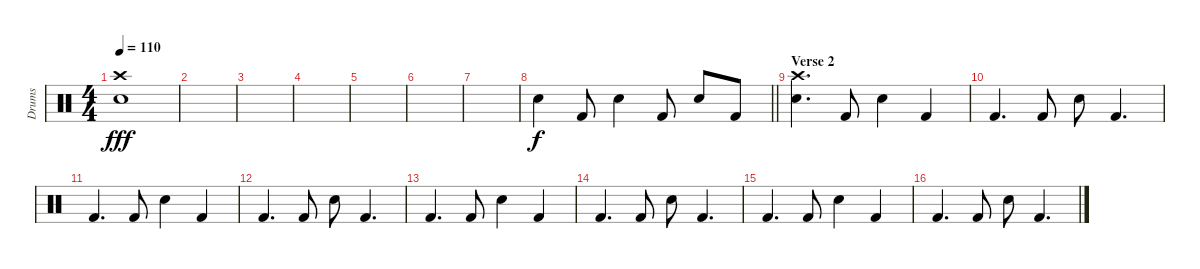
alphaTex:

\track ("Drums" "Drums") {instrument percussion}
\staff {score}
\articulation defaults
\ts (4 4)
\tempo 110
\clef neutral
\ks c
("Crash high (hit)" "Electric Snare (hit)").1{dy fff} |
|
|
|
|
|
|
\barLineRight lightlight "Electric Snare (hit)".4{dy f} "Kick (hit) 2".8 "Electric Snare (hit)".4 "Kick (hit) 2".8 "Electric Snare (hit)".8 "Kick (hit) 2".8
|
\section ("" "Verse 2")
("Crash high (hit)" "Electric Snare (hit)").4{d} "Kick (hit) 2".8 "Electric Snare (hit)".4 "Kick (hit) 2".4 |
"Kick (hit) 2".4{d} "Kick (hit) 2".8 "Electric Snare (hit)".8 "Kick (hit) 2".4{d} |
"Kick (hit) 2".4{d} "Kick (hit) 2".8 "Electric Snare (hit)".4 "Kick (hit) 2".4 |
"Kick (hit) 2".4{d} "Kick (hit) 2".8 "Electric Snare (hit)".8 "Kick (hit) 2".4{d} |
"Kick (hit) 2".4{d} "Kick (hit) 2".8 "Electric Snare (hit)".4 "Kick (hit) 2".4 |
"Kick (hit) 2".4{d} "Kick (hit) 2".8 "Electric Snare (hit)".8 "Kick (hit) 2".4{d} |
"Kick (hit) 2".4{d} "Kick (hit) 2".8 "Electric Snare (hit)".4 "Kick (hit) 2".4 |
"Kick (hit) 2".4{d} "Kick (hit) 2".8 "Electric Snare (hit)".8 "Kick (hit) 2".4{d}
